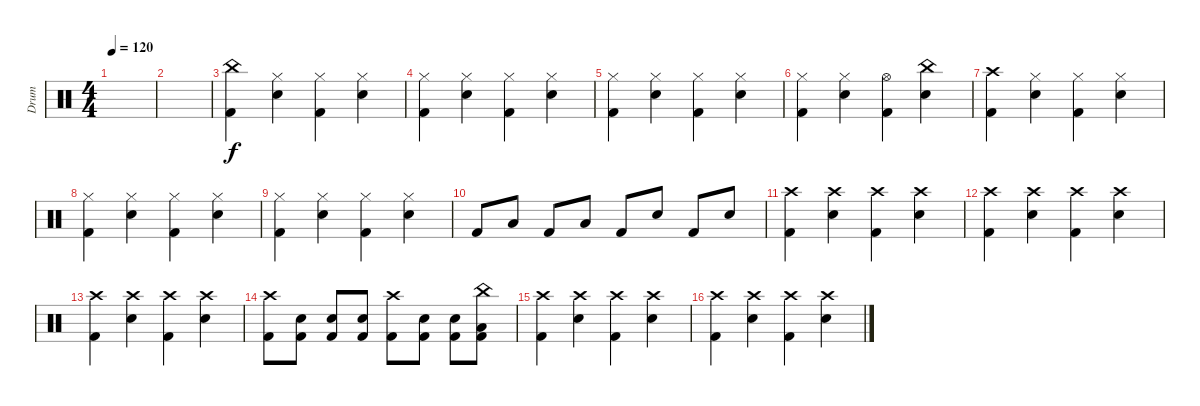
\track ("Drum" "Drum") {instrument percussion}
\staff {score}
\articulation defaults
\ts (4 4)
\tempo 120
\clef neutral
\ks c
|
|
("China (hit)" "Kick (hit) 2").4 ("Hi-Hat (closed)" "Snare (hit) 2").4 ("Hi-Hat (closed)" "Kick (hit) 2").4 ("Hi-Hat (closed)" "Snare (hit) 2").4 |
("Hi-Hat (closed)" "Kick (hit) 2").4 ("Hi-Hat (closed)" "Snare (hit) 2").4 ("Hi-Hat (closed)" "Kick (hit) 2").4 ("Hi-Hat (closed)" "Snare (hit) 2").4 |
("Hi-Hat (closed)" "Kick (hit) 2").4 ("Hi-Hat (closed)" "Snare (hit) 2").4 ("Hi-Hat (closed)" "Kick (hit) 2").4 ("Hi-Hat (closed)" "Snare (hit) 2").4 |
("Hi-Hat (closed)" "Kick (hit) 2").4 ("Hi-Hat (closed)" "Snare (hit) 2").4 ("Hi-Hat (open)" "Kick (hit) 2").4 ("China (hit)" "Snare (hit) 2").4 |
("Crash high (hit)" "Kick (hit) 2").4 ("Hi-Hat (closed)" "Snare (hit) 2").4 ("Hi-Hat (closed)" "Kick (hit) 2").4 ("Hi-Hat (closed)" "Snare (hit) 2").4 |
("Hi-Hat (closed)" "Kick (hit) 2").4 ("Hi-Hat (closed)" "Snare (hit) 2").4 ("Hi-Hat (closed)" "Kick (hit) 2").4 ("Hi-Hat (closed)" "Snare (hit) 2").4 |
("Hi-Hat (closed)" "Kick (hit) 2").4 ("Hi-Hat (closed)" "Snare (hit) 2").4 ("Hi-Hat (closed)" "Kick (hit) 2").4 ("Hi-Hat (closed)" "Snare (hit) 2").4 |
"Kick (hit) 2".8 "Low Floor Tom (hit)".8 "Kick (hit) 2".8 "Low Floor Tom (hit)".8 "Kick (hit) 2".8 "Snare (hit) 2".8 "Kick (hit) 2".8 "Snare (hit) 2".8 |
("Crash high (hit)" "Kick (hit) 2").4 ("Crash high (hit)" "Snare (hit) 2").4 ("Crash high (hit)" "Kick (hit) 2").4 ("Crash high (hit)" "Snare (hit) 2").4 |
("Crash high (hit)" "Kick (hit) 2").4 ("Crash high (hit)" "Snare (hit) 2").4 ("Crash high (hit)" "Kick (hit) 2").4 ("Crash high (hit)" "Snare (hit) 2").4 |
("Crash high (hit)" "Kick (hit) 2").4 ("Crash high (hit)" "Snare (hit) 2").4 ("Crash high (hit)" "Kick (hit) 2").4 ("Crash high (hit)" "Snare (hit) 2").4 |
("Crash high (hit)" "Kick (hit) 2").8 ("Snare (hit) 2" "Kick (hit) 2").8 ("Snare (hit) 2" "Kick (hit) 2").8 ("Snare (hit) 2" "Kick (hit) 2").8 ("Crash high (hit)" "Kick (hit) 2").8 ("Snare (hit) 2" "Kick (hit) 2").8 ("Snare (hit) 2" "Kick (hit) 2").8 ("China (hit)" "Low Floor Tom (hit)" "Kick (hit) 2").8 |
("Crash high (hit)" "Kick (hit) 2").4 ("Crash high (hit)" "Snare (hit) 2").4 ("Crash high (hit)" "Kick (hit) 2").4 ("Crash high (hit)" "Snare (hit) 2").4 |
("Crash high (hit)" "Kick (hit) 2").4 ("Crash high (hit)" "Snare (hit) 2").4 ("Crash high (hit)" "Kick (hit) 2").4 ("Crash high (hit)" "Snare (hit) 2").4
